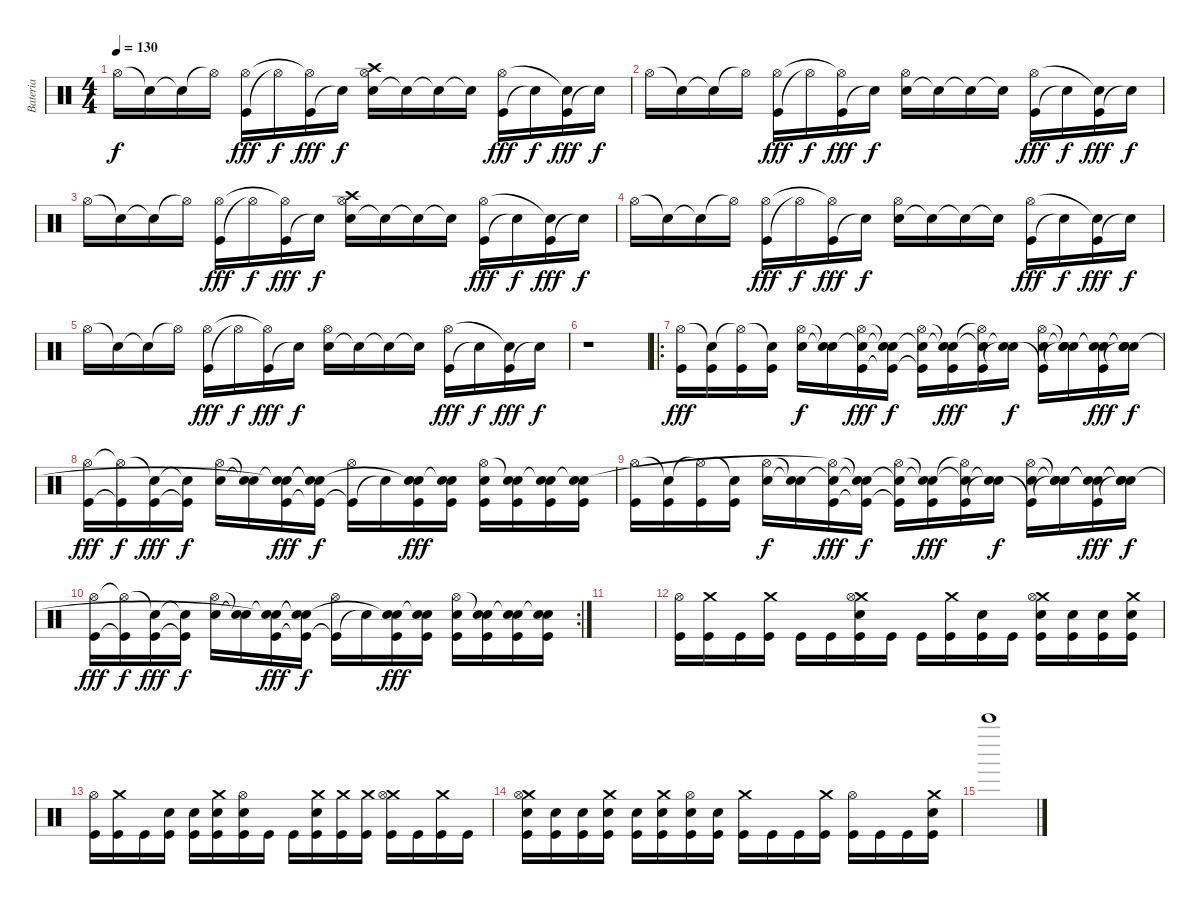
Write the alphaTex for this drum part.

\track ("Bateria" "Bateria") {instrument percussion}
\staff {score}
\articulation defaults
\ts (4 4)
\tempo 130
\clef neutral
\ks c "Hi-Hat (open)".16{dy f} "Snare (hit)"{t}.16 "Snare (hit)"{t}.16 "Hi-Hat (open)"{t}.16
("Kick (hit)" "Hi-Hat (open)").16{dy fff} "Hi-Hat (open)"{t}.16{dy f} ("Kick (hit)" "Hi-Hat (open)"{t}).16{dy fff} "Snare (hit)"{t}.16{dy f} ("Electric Snare (hit)" "Crash high (hit)" "Hi-Hat (open)").16 "Snare (hit)"{t}.16 "Snare (hit)"{t}.16 "Snare (hit)"{t}.16 ("Kick (hit)" "Hi-Hat (open)").16{dy fff} "Snare (hit)"{t}.16{dy f} ("Kick (hit)" "Snare (hit)"{t}).16{dy fff} "Snare (hit)"{t}.16{dy f} |
"Hi-Hat (open)".16 "Snare (hit)"{t}.16 "Snare (hit)"{t}.16 "Hi-Hat (open)"{t}.16 ("Kick (hit)" "Hi-Hat (open)").16{dy fff} "Hi-Hat (open)"{t}.16{dy f} ("Kick (hit)" "Hi-Hat (open)"{t}).16{dy fff} "Snare (hit)"{t}.16{dy f} ("Electric Snare (hit)" "Hi-Hat (open)").16 "Snare (hit)"{t}.16 "Snare (hit)"{t}.16 "Snare (hit)"{t}.16 ("Kick (hit)" "Hi-Hat (open)").16{dy fff} "Snare (hit)"{t}.16{dy f} ("Kick (hit)" "Snare (hit)"{t}).16{dy fff} "Snare (hit)"{t}.16{dy f} |
"Hi-Hat (open)".16 "Snare (hit)"{t}.16 "Snare (hit)"{t}.16 "Hi-Hat (open)"{t}.16 ("Kick (hit)" "Hi-Hat (open)").16{dy fff} "Hi-Hat (open)"{t}.16{dy f} ("Kick (hit)" "Hi-Hat (open)"{t}).16{dy fff} "Snare (hit)"{t}.16{dy f} ("Electric Snare (hit)" "Crash high (hit)" "Hi-Hat (open)").16 "Snare (hit)"{t}.16 "Snare (hit)"{t}.16 "Snare (hit)"{t}.16 ("Kick (hit)" "Hi-Hat (open)").16{dy fff} "Snare (hit)"{t}.16{dy f} ("Kick (hit)" "Snare (hit)"{t}).16{dy fff} "Snare (hit)"{t}.16{dy f} |
"Hi-Hat (open)".16 "Snare (hit)"{t}.16 "Snare (hit)"{t}.16 "Hi-Hat (open)"{t}.16 ("Kick (hit)" "Hi-Hat (open)").16{dy fff} "Hi-Hat (open)"{t}.16{dy f} ("Kick (hit)" "Hi-Hat (open)"{t}).16{dy fff} "Snare (hit)"{t}.16{dy f} ("Electric Snare (hit)" "Hi-Hat (open)").16 "Snare (hit)"{t}.16 "Snare (hit)"{t}.16 "Snare (hit)"{t}.16 ("Kick (hit)" "Hi-Hat (open)").16{dy fff} "Snare (hit)"{t}.16{dy f} ("Kick (hit)" "Snare (hit)"{t}).16{dy fff} "Snare (hit)"{t}.16{dy f} |
"Hi-Hat (open)".16 "Snare (hit)"{t}.16 "Snare (hit)"{t}.16 "Hi-Hat (open)"{t}.16 ("Kick (hit)" "Hi-Hat (open)").16{dy fff} "Hi-Hat (open)"{t}.16{dy f} ("Kick (hit)" "Hi-Hat (open)"{t}).16{dy fff} "Snare (hit)"{t}.16{dy f} ("Electric Snare (hit)" "Hi-Hat (open)").16 "Snare (hit)"{t}.16 "Snare (hit)"{t}.16 "Snare (hit)"{t}.16 ("Kick (hit)" "Hi-Hat (open)").16{dy fff} "Snare (hit)"{t}.16{dy f} ("Kick (hit)" "Snare (hit)"{t}).16{dy fff} "Snare (hit)"{t}.16{dy f} |
r.1 |
\ro
("Kick (hit)" "Hi-Hat (open)").16{dy fff} ("Kick (hit)" "Snare (hit)"{t}).16 ("Kick (hit)" "Hi-Hat (open)"{t}).16 ("Kick (hit)" "Snare (hit)"{t}).16 ("Electric Snare (hit)" "Hi-Hat (open)").16{dy f} ("Snare (hit)"{t} "Snare (hit)"{t}).16 ("Kick (hit)" "Snare (hit)"{t} "Hi-Hat (open)").16{dy fff} ("Kick (hit)"{t} "Snare (hit)"{t} "Snare (hit)"{t}).16{dy f} ("Kick (hit)"{t} "Snare (hit)"{t} "Hi-Hat (open)").16 ("Kick (hit)" "Snare (hit)"{t} "Snare (hit)"{t}).16{dy fff} ("Kick (hit)" "Electric Snare (hit)"{t} "Hi-Hat (open)"{t}).16 ("Snare (hit)"{t} "Snare (hit)"{t}).16{dy f} ("Kick (hit)"{t} "Electric Snare (hit)" "Hi-Hat (open)").16 ("Snare (hit)"{t} "Snare (hit)"{t} "Snare (hit)"{t}).16 ("Kick (hit)" "Snare (hit)"{t} "Snare (hit)"{t}).16{dy fff} ("Snare (hit)"{t} "Snare (hit)"{t} "Snare (hit)"{t}).16{dy f} |
("Kick (hit)" "Hi-Hat (open)").16{dy fff} ("Kick (hit)"{t} "Hi-Hat (open)"{t}).16{dy f} ("Kick (hit)" "Snare (hit)"{t}).16{dy fff} ("Kick (hit)"{t} "Snare (hit)"{t}).16{dy f} ("Electric Snare (hit)" "Hi-Hat (open)").16 ("Snare (hit)"{t} "Snare (hit)"{t}).16 ("Kick (hit)" "Snare (hit)"{t} "Snare (hit)"{t}).16{dy fff} ("Kick (hit)"{t} "Snare (hit)"{t} "Snare (hit)"{t}).16{dy f} ("Kick (hit)"{t} "Hi-Hat (open)").16 "Snare (hit)"{t}.16 ("Kick (hit)" "Electric Snare (hit)" "Snare (hit)"{t}).16{dy fff} ("Kick (hit)" "Electric Snare (hit)" "Snare (hit)"{t}).16 ("Kick (hit)" "Electric Snare (hit)" "Hi-Hat (open)").16 ("Kick (hit)" "Electric Snare (hit)" "Snare (hit)"{t}).16 ("Kick (hit)" "Electric Snare (hit)" "Snare (hit)"{t}).16 ("Kick (hit)" "Electric Snare (hit)" "Snare (hit)"{t}).16 |
("Kick (hit)" "Hi-Hat (open)").16 ("Kick (hit)" "Snare (hit)"{t}).16 ("Kick (hit)" "Hi-Hat (open)"{t}).16 ("Kick (hit)" "Snare (hit)"{t}).16 ("Electric Snare (hit)" "Hi-Hat (open)").16{dy f} ("Snare (hit)"{t} "Snare (hit)"{t}).16 ("Kick (hit)" "Snare (hit)"{t} "Hi-Hat (open)"{t}).16{dy fff} ("Kick (hit)"{t} "Snare (hit)"{t} "Snare (hit)"{t}).16{dy f} ("Kick (hit)"{t} "Snare (hit)"{t} "Hi-Hat (open)").16 ("Kick (hit)" "Snare (hit)"{t} "Snare (hit)"{t}).16{dy fff} ("Kick (hit)" "Electric Snare (hit)"{t} "Hi-Hat (open)"{t}).16 ("Snare (hit)"{t} "Snare (hit)"{t}).16{dy f} ("Kick (hit)"{t} "Electric Snare (hit)" "Hi-Hat (open)").16 ("Snare (hit)"{t} "Snare (hit)"{t} "Snare (hit)"{t}).16 ("Kick (hit)" "Snare (hit)"{t} "Snare (hit)"{t}).16{dy fff} ("Snare (hit)"{t} "Snare (hit)"{t} "Snare (hit)"{t}).16{dy f} |
\rc 2
("Kick (hit)" "Hi-Hat (open)").16{dy fff} ("Kick (hit)"{t} "Hi-Hat (open)"{t}).16{dy f} ("Kick (hit)" "Snare (hit)"{t}).16{dy fff} ("Kick (hit)"{t} "Snare (hit)"{t}).16{dy f} ("Electric Snare (hit)" "Hi-Hat (open)").16 ("Snare (hit)"{t} "Snare (hit)"{t}).16 ("Kick (hit)" "Snare (hit)"{t} "Snare (hit)"{t}).16{dy fff} ("Kick (hit)"{t} "Snare (hit)"{t} "Snare (hit)"{t}).16{dy f} ("Kick (hit)"{t} "Hi-Hat (open)").16 "Snare (hit)"{t}.16 ("Kick (hit)" "Electric Snare (hit)" "Snare (hit)"{t}).16{dy fff} ("Kick (hit)" "Electric Snare (hit)" "Snare (hit)"{t}).16 ("Kick (hit)" "Electric Snare (hit)" "Hi-Hat (open)").16 ("Kick (hit)" "Electric Snare (hit)" "Snare (hit)"{t}).16 ("Kick (hit)" "Electric Snare (hit)" "Snare (hit)"{t}).16 ("Kick (hit)" "Electric Snare (hit)" "Snare (hit)"{t}).16 |
|
("Kick (hit)" "Hi-Hat (open)").16 ("Kick (hit)" "Crash medium (hit)").16 "Kick (hit)".16 ("Kick (hit)" "Crash medium (hit)").16 "Kick (hit)".16 "Kick (hit)".16 ("Kick (hit)" "Crash medium (hit)" "Electric Snare (hit)" "Hi-Hat (open)").16 "Kick (hit)".16 "Kick (hit)".16 ("Kick (hit)" "Crash medium (hit)").16 ("Kick (hit)" "Electric Snare (hit)").16 "Kick (hit)".16 ("Kick (hit)" "Crash medium (hit)" "Electric Snare (hit)" "Hi-Hat (open)").16 ("Kick (hit)" "Electric Snare (hit)").16 ("Kick (hit)" "Electric Snare (hit)").16 ("Kick (hit)" "Crash medium (hit)" "Electric Snare (hit)").16 |
("Kick (hit)" "Hi-Hat (open)").16 ("Kick (hit)" "Crash medium (hit)").16 "Kick (hit)".16 ("Kick (hit)" "Electric Snare (hit)").16 ("Kick (hit)" "Electric Snare (hit)").16 ("Kick (hit)" "Crash medium (hit)" "Electric Snare (hit)").16 ("Kick (hit)" "Electric Snare (hit)" "Hi-Hat (open)").16 "Kick (hit)".16 "Kick (hit)".16 ("Kick (hit)" "Crash medium (hit)" "Electric Snare (hit)").16 ("Kick (hit)" "Crash medium (hit)").16 ("Kick (hit)" "Crash medium (hit)").16 ("Kick (hit)" "Crash medium (hit)" "Hi-Hat (open)").16 "Kick (hit)".16 ("Kick (hit)" "Crash medium (hit)").16 "Kick (hit)".16 |
("Kick (hit)" "Crash medium (hit)" "Electric Snare (hit)" "Hi-Hat (open)").16 ("Kick (hit)" "Electric Snare (hit)").16 ("Kick (hit)" "Electric Snare (hit)").16 ("Kick (hit)" "Crash medium (hit)" "Electric Snare (hit)").16 ("Kick (hit)" "Electric Snare (hit)").16 ("Kick (hit)" "Crash medium (hit)" "Electric Snare (hit)").16 ("Kick (hit)" "Electric Snare (hit)" "Hi-Hat (open)").16 ("Kick (hit)" "Electric Snare (hit)").16 ("Kick (hit)" "Crash medium (hit)").16 "Kick (hit)".16 "Kick (hit)".16 ("Kick (hit)" "Crash medium (hit)").16 ("Kick (hit)" "Hi-Hat (open)").16 "Kick (hit)".16 "Kick (hit)".16 ("Kick (hit)" "Crash medium (hit)" "Electric Snare (hit)").16 |
"Bell Tree (hit)".1
